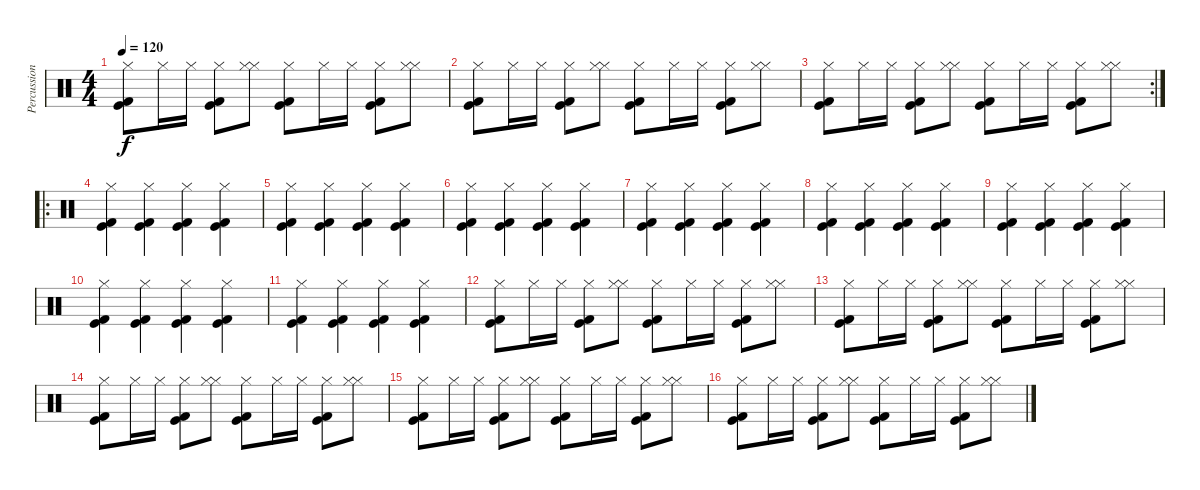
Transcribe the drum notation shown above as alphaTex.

\track ("Percussions" "Percussion") {instrument percussion}
\staff {score}
\articulation defaults
\ts (4 4)
\tempo 120
\clef neutral
\ks c
("Kick (hit) 2" "Kick (hit)" "Hi-Hat (closed)").8{dy f} "Hi-Hat (closed)".16 "Hi-Hat (closed)".16 ("Kick (hit) 2" "Kick (hit)" "Hi-Hat (closed)").8 ("Hi-Hat (closed)" "Hi-Hat (closed)").8 ("Kick (hit) 2" "Kick (hit)" "Hi-Hat (closed)").8 "Hi-Hat (closed)".16 "Hi-Hat (closed)".16 ("Kick (hit) 2" "Kick (hit)" "Hi-Hat (closed)").8 ("Hi-Hat (closed)" "Hi-Hat (closed)").8 |
("Kick (hit) 2" "Kick (hit)" "Hi-Hat (closed)").8 "Hi-Hat (closed)".16 "Hi-Hat (closed)".16 ("Kick (hit) 2" "Kick (hit)" "Hi-Hat (closed)").8 ("Hi-Hat (closed)" "Hi-Hat (closed)").8 ("Kick (hit) 2" "Kick (hit)" "Hi-Hat (closed)").8 "Hi-Hat (closed)".16 "Hi-Hat (closed)".16 ("Kick (hit) 2" "Kick (hit)" "Hi-Hat (closed)").8 ("Hi-Hat (closed)" "Hi-Hat (closed)").8 |
\rc 2
("Kick (hit) 2" "Kick (hit)" "Hi-Hat (closed)").8 "Hi-Hat (closed)".16 "Hi-Hat (closed)".16 ("Kick (hit) 2" "Kick (hit)" "Hi-Hat (closed)").8 ("Hi-Hat (closed)" "Hi-Hat (closed)").8 ("Kick (hit) 2" "Kick (hit)" "Hi-Hat (closed)").8 "Hi-Hat (closed)".16 "Hi-Hat (closed)".16 ("Kick (hit) 2" "Kick (hit)" "Hi-Hat (closed)").8 ("Hi-Hat (closed)" "Hi-Hat (closed)").8 |
\ro
("Kick (hit) 2" "Kick (hit)" "Hi-Hat (closed)").4 ("Kick (hit) 2" "Kick (hit)" "Hi-Hat (closed)").4 ("Kick (hit) 2" "Kick (hit)" "Hi-Hat (closed)").4 ("Kick (hit) 2" "Kick (hit)" "Hi-Hat (closed)").4 |
("Kick (hit) 2" "Kick (hit)" "Hi-Hat (closed)").4 ("Kick (hit) 2" "Kick (hit)" "Hi-Hat (closed)").4 ("Kick (hit) 2" "Kick (hit)" "Hi-Hat (closed)").4 ("Kick (hit) 2" "Kick (hit)" "Hi-Hat (closed)").4 |
("Kick (hit) 2" "Kick (hit)" "Hi-Hat (closed)").4 ("Kick (hit) 2" "Kick (hit)" "Hi-Hat (closed)").4 ("Kick (hit) 2" "Kick (hit)" "Hi-Hat (closed)").4 ("Kick (hit) 2" "Kick (hit)" "Hi-Hat (closed)").4 |
("Kick (hit) 2" "Kick (hit)" "Hi-Hat (closed)").4 ("Kick (hit) 2" "Kick (hit)" "Hi-Hat (closed)").4 ("Kick (hit) 2" "Kick (hit)" "Hi-Hat (closed)").4 ("Kick (hit) 2" "Kick (hit)" "Hi-Hat (closed)").4 |
("Kick (hit) 2" "Kick (hit)" "Hi-Hat (closed)").4 ("Kick (hit) 2" "Kick (hit)" "Hi-Hat (closed)").4 ("Kick (hit) 2" "Kick (hit)" "Hi-Hat (closed)").4 ("Kick (hit) 2" "Kick (hit)" "Hi-Hat (closed)").4 |
("Kick (hit) 2" "Kick (hit)" "Hi-Hat (closed)").4 ("Kick (hit) 2" "Kick (hit)" "Hi-Hat (closed)").4 ("Kick (hit) 2" "Kick (hit)" "Hi-Hat (closed)").4 ("Kick (hit) 2" "Kick (hit)" "Hi-Hat (closed)").4 |
("Kick (hit) 2" "Kick (hit)" "Hi-Hat (closed)").4 ("Kick (hit) 2" "Kick (hit)" "Hi-Hat (closed)").4 ("Kick (hit) 2" "Kick (hit)" "Hi-Hat (closed)").4 ("Kick (hit) 2" "Kick (hit)" "Hi-Hat (closed)").4 |
("Kick (hit) 2" "Kick (hit)" "Hi-Hat (closed)").4 ("Kick (hit) 2" "Kick (hit)" "Hi-Hat (closed)").4 ("Kick (hit) 2" "Kick (hit)" "Hi-Hat (closed)").4 ("Kick (hit) 2" "Kick (hit)" "Hi-Hat (closed)").4 |
("Kick (hit) 2" "Kick (hit)" "Hi-Hat (closed)").8 "Hi-Hat (closed)".16 "Hi-Hat (closed)".16 ("Kick (hit) 2" "Kick (hit)" "Hi-Hat (closed)").8 ("Hi-Hat (closed)" "Hi-Hat (closed)").8 ("Kick (hit) 2" "Kick (hit)" "Hi-Hat (closed)").8 "Hi-Hat (closed)".16 "Hi-Hat (closed)".16 ("Kick (hit) 2" "Kick (hit)" "Hi-Hat (closed)").8 ("Hi-Hat (closed)" "Hi-Hat (closed)").8 |
("Kick (hit) 2" "Kick (hit)" "Hi-Hat (closed)").8 "Hi-Hat (closed)".16 "Hi-Hat (closed)".16 ("Kick (hit) 2" "Kick (hit)" "Hi-Hat (closed)").8 ("Hi-Hat (closed)" "Hi-Hat (closed)").8 ("Kick (hit) 2" "Kick (hit)" "Hi-Hat (closed)").8 "Hi-Hat (closed)".16 "Hi-Hat (closed)".16 ("Kick (hit) 2" "Kick (hit)" "Hi-Hat (closed)").8 ("Hi-Hat (closed)" "Hi-Hat (closed)").8 |
("Kick (hit) 2" "Kick (hit)" "Hi-Hat (closed)").8 "Hi-Hat (closed)".16 "Hi-Hat (closed)".16 ("Kick (hit) 2" "Kick (hit)" "Hi-Hat (closed)").8 ("Hi-Hat (closed)" "Hi-Hat (closed)").8 ("Kick (hit) 2" "Kick (hit)" "Hi-Hat (closed)").8 "Hi-Hat (closed)".16 "Hi-Hat (closed)".16 ("Kick (hit) 2" "Kick (hit)" "Hi-Hat (closed)").8 ("Hi-Hat (closed)" "Hi-Hat (closed)").8 |
("Kick (hit) 2" "Kick (hit)" "Hi-Hat (closed)").8 "Hi-Hat (closed)".16 "Hi-Hat (closed)".16 ("Kick (hit) 2" "Kick (hit)" "Hi-Hat (closed)").8 ("Hi-Hat (closed)" "Hi-Hat (closed)").8 ("Kick (hit) 2" "Kick (hit)" "Hi-Hat (closed)").8 "Hi-Hat (closed)".16 "Hi-Hat (closed)".16 ("Kick (hit) 2" "Kick (hit)" "Hi-Hat (closed)").8 ("Hi-Hat (closed)" "Hi-Hat (closed)").8 |
("Kick (hit) 2" "Kick (hit)" "Hi-Hat (closed)").8 "Hi-Hat (closed)".16 "Hi-Hat (closed)".16 ("Kick (hit) 2" "Kick (hit)" "Hi-Hat (closed)").8 ("Hi-Hat (closed)" "Hi-Hat (closed)").8 ("Kick (hit) 2" "Kick (hit)" "Hi-Hat (closed)").8 "Hi-Hat (closed)".16 "Hi-Hat (closed)".16 ("Kick (hit) 2" "Kick (hit)" "Hi-Hat (closed)").8 ("Hi-Hat (closed)" "Hi-Hat (closed)").8
